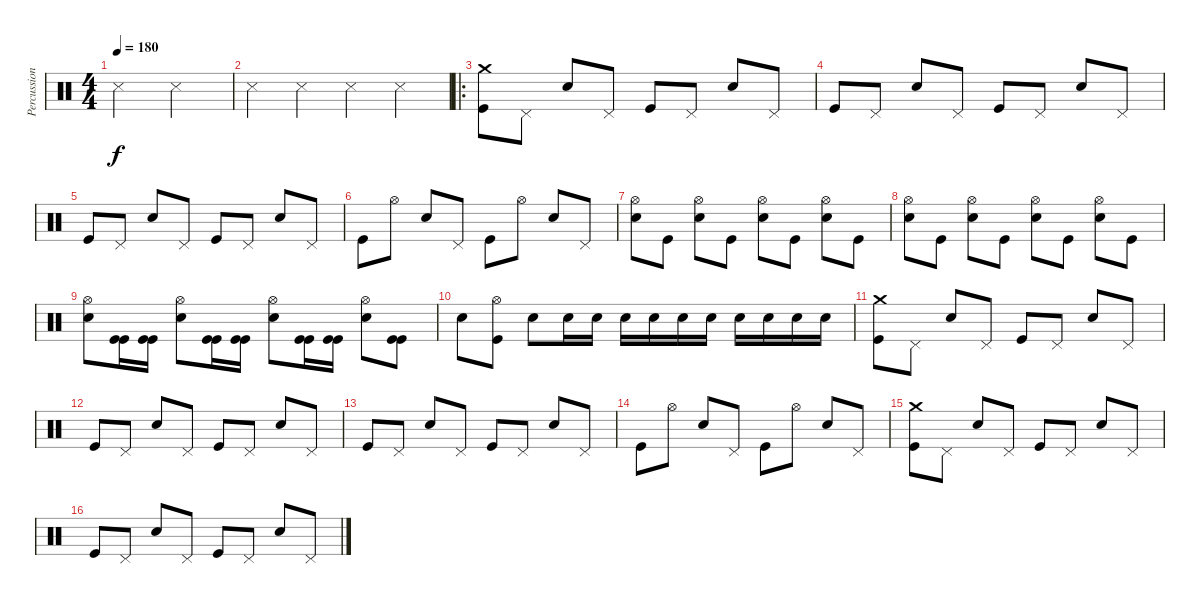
\track ("Percussions" "Percussion") {instrument percussion}
\staff {score}
\articulation defaults
\ts (4 4)
\tempo 180
\clef neutral
\ks c "Snare (side stick) 3".2{dy f} "Snare (side stick) 3".2
|
"Snare (side stick) 3".4 "Snare (side stick) 3".4 "Snare (side stick) 3".4 "Snare (side stick) 3".4 |
\ro
("Crash medium (hit)" "Kick (hit)").8 "Pedal Hi-Hat (hit)".8 "Snare (hit) 2".8 "Pedal Hi-Hat (hit)".8 "Kick (hit)".8 "Pedal Hi-Hat (hit)".8 "Snare (hit) 2".8 "Pedal Hi-Hat (hit)".8 |
"Kick (hit)".8 "Pedal Hi-Hat (hit)".8 "Snare (hit) 2".8 "Pedal Hi-Hat (hit)".8 "Kick (hit)".8 "Pedal Hi-Hat (hit)".8 "Snare (hit) 2".8 "Pedal Hi-Hat (hit)".8 |
"Kick (hit)".8 "Pedal Hi-Hat (hit)".8 "Snare (hit) 2".8 "Pedal Hi-Hat (hit)".8 "Kick (hit)".8 "Pedal Hi-Hat (hit)".8 "Snare (hit) 2".8 "Pedal Hi-Hat (hit)".8 |
"Kick (hit)".8 "Hi-Hat (open)".8 "Snare (hit) 2".8 "Pedal Hi-Hat (hit)".8 "Kick (hit)".8 "Hi-Hat (open)".8 "Snare (hit) 2".8 "Pedal Hi-Hat (hit)".8 |
("Hi-Hat (open)" "Snare (hit) 2").8 "Kick (hit)".8 ("Hi-Hat (open)" "Snare (hit) 2").8 "Kick (hit)".8 ("Hi-Hat (open)" "Snare (hit) 2").8 "Kick (hit)".8 ("Hi-Hat (open)" "Snare (hit) 2").8 "Kick (hit)".8 |
("Hi-Hat (open)" "Snare (hit) 2").8 "Kick (hit)".8 ("Hi-Hat (open)" "Snare (hit) 2").8 "Kick (hit)".8 ("Hi-Hat (open)" "Snare (hit) 2").8 "Kick (hit)".8 ("Hi-Hat (open)" "Snare (hit) 2").8 "Kick (hit)".8 |
("Hi-Hat (open)" "Snare (hit) 2").8 ("Kick (hit)" "Kick (hit)").16 ("Kick (hit)" "Kick (hit)").16 ("Hi-Hat (open)" "Snare (hit) 2").8 ("Kick (hit)" "Kick (hit)").16 ("Kick (hit)" "Kick (hit)").16 ("Hi-Hat (open)" "Snare (hit) 2").8 ("Kick (hit)" "Kick (hit)").16 ("Kick (hit)" "Kick (hit)").16 ("Hi-Hat (open)" "Snare (hit) 2").8 ("Kick (hit)" "Kick (hit)").8 |
"Snare (hit) 2".8 ("Hi-Hat (open)" "Kick (hit)").8 "Snare (hit) 2".8 "Snare (hit) 2".16 "Snare (hit) 2".16 "Snare (hit) 2".16 "Snare (hit) 2".16 "Snare (hit) 2".16 "Snare (hit) 2".16 "Snare (hit) 2".16 "Snare (hit) 2".16 "Snare (hit) 2".16 "Snare (hit) 2".16 |
("Crash medium (hit)" "Kick (hit)").8 "Pedal Hi-Hat (hit)".8 "Snare (hit) 2".8 "Pedal Hi-Hat (hit)".8 "Kick (hit)".8 "Pedal Hi-Hat (hit)".8 "Snare (hit) 2".8 "Pedal Hi-Hat (hit)".8 |
"Kick (hit)".8 "Pedal Hi-Hat (hit)".8 "Snare (hit) 2".8 "Pedal Hi-Hat (hit)".8 "Kick (hit)".8 "Pedal Hi-Hat (hit)".8 "Snare (hit) 2".8 "Pedal Hi-Hat (hit)".8 |
"Kick (hit)".8 "Pedal Hi-Hat (hit)".8 "Snare (hit) 2".8 "Pedal Hi-Hat (hit)".8 "Kick (hit)".8 "Pedal Hi-Hat (hit)".8 "Snare (hit) 2".8 "Pedal Hi-Hat (hit)".8 |
"Kick (hit)".8 "Hi-Hat (open)".8 "Snare (hit) 2".8 "Pedal Hi-Hat (hit)".8 "Kick (hit)".8 "Hi-Hat (open)".8 "Snare (hit) 2".8 "Pedal Hi-Hat (hit)".8 |
("Crash medium (hit)" "Kick (hit)").8 "Pedal Hi-Hat (hit)".8 "Snare (hit) 2".8 "Pedal Hi-Hat (hit)".8 "Kick (hit)".8 "Pedal Hi-Hat (hit)".8 "Snare (hit) 2".8 "Pedal Hi-Hat (hit)".8 |
"Kick (hit)".8 "Pedal Hi-Hat (hit)".8 "Snare (hit) 2".8 "Pedal Hi-Hat (hit)".8 "Kick (hit)".8 "Pedal Hi-Hat (hit)".8 "Snare (hit) 2".8 "Pedal Hi-Hat (hit)".8
